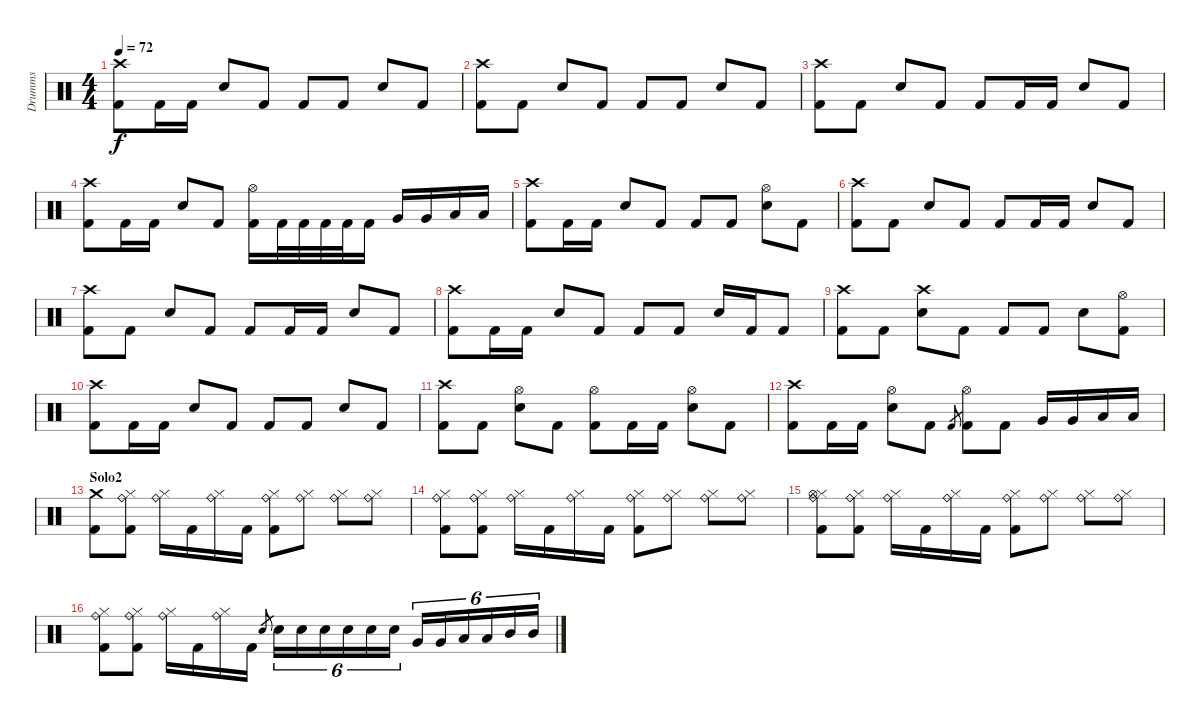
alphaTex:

\track ("Drumms" "Drumms") {instrument percussion}
\staff {score}
\articulation defaults
\ts (4 4)
\tempo 72
\clef neutral
\ks c
("Crash high (hit)" "Kick (hit) 2").8{dy f} "Kick (hit) 2".16 "Kick (hit) 2".16 "Electric Snare (hit)".8 "Kick (hit) 2".8 "Kick (hit) 2".8 "Kick (hit) 2".8 "Electric Snare (hit)".8 "Kick (hit) 2".8 |
("Crash high (hit)" "Kick (hit) 2").8 "Kick (hit) 2".8 "Electric Snare (hit)".8 "Kick (hit) 2".8 "Kick (hit) 2".8 "Kick (hit) 2".8 "Electric Snare (hit)".8 "Kick (hit) 2".8 |
("Crash high (hit)" "Kick (hit) 2").8 "Kick (hit) 2".8 "Electric Snare (hit)".8 "Kick (hit) 2".8 "Kick (hit) 2".8 "Kick (hit) 2".16 "Kick (hit) 2".16 "Electric Snare (hit)".8 "Kick (hit) 2".8 |
("Crash high (hit)" "Kick (hit) 2").8 "Kick (hit) 2".16 "Kick (hit) 2".16 "Electric Snare (hit)".8 "Kick (hit) 2".8 ("Hi-Hat (open)" "Kick (hit) 2").16 "Kick (hit) 2".32 "Kick (hit) 2".32 "Kick (hit) 2".32 "Kick (hit) 2".32 "Kick (hit) 2".16 "Very Low Tom (hit)".16 "Very Low Tom (hit)".16 "Low Tom (hit)".16 "Low Tom (hit)".16 |
("Crash high (hit)" "Kick (hit) 2").8 "Kick (hit) 2".16 "Kick (hit) 2".16 "Electric Snare (hit)".8 "Kick (hit) 2".8 "Kick (hit) 2".8 "Kick (hit) 2".8 ("Hi-Hat (open)" "Electric Snare (hit)").8 "Kick (hit) 2".8 |
("Crash high (hit)" "Kick (hit) 2").8 "Kick (hit) 2".8 "Electric Snare (hit)".8 "Kick (hit) 2".8 "Kick (hit) 2".8 "Kick (hit) 2".16 "Kick (hit) 2".16 "Electric Snare (hit)".8 "Kick (hit) 2".8 |
("Crash high (hit)" "Kick (hit) 2").8 "Kick (hit) 2".8 "Electric Snare (hit)".8 "Kick (hit) 2".8 "Kick (hit) 2".8 "Kick (hit) 2".16 "Kick (hit) 2".16 "Electric Snare (hit)".8 "Kick (hit) 2".8 |
("Crash high (hit)" "Kick (hit) 2").8 "Kick (hit) 2".16 "Kick (hit) 2".16 "Electric Snare (hit)".8 "Kick (hit) 2".8 "Kick (hit) 2".8 "Kick (hit) 2".8 "Electric Snare (hit)".16 "Kick (hit) 2".16 "Kick (hit) 2".8 |
("Crash high (hit)" "Kick (hit) 2").8 "Kick (hit) 2".8 ("Crash high (hit)" "Electric Snare (hit)").8 "Kick (hit) 2".8 "Kick (hit) 2".8 "Kick (hit) 2".8 "Electric Snare (hit)".8 ("Hi-Hat (open)" "Kick (hit) 2").8 |
("Crash high (hit)" "Kick (hit) 2").8 "Kick (hit) 2".16 "Kick (hit) 2".16 "Electric Snare (hit)".8 "Kick (hit) 2".8 "Kick (hit) 2".8 "Kick (hit) 2".8 "Electric Snare (hit)".8 "Kick (hit) 2".8 |
("Crash high (hit)" "Kick (hit) 2").8 "Kick (hit) 2".8 ("Hi-Hat (open)" "Electric Snare (hit)").8 "Kick (hit) 2".8 ("Hi-Hat (open)" "Kick (hit) 2").8 "Kick (hit) 2".16 "Kick (hit) 2".16 ("Hi-Hat (open)" "Electric Snare (hit)").8 "Kick (hit) 2".8 |
("Crash high (hit)" "Kick (hit) 2").8 "Kick (hit) 2".16 "Kick (hit) 2".16 ("Hi-Hat (open)" "Electric Snare (hit)").8 "Kick (hit) 2".8 "Kick (hit) 2".8{gr} ("Hi-Hat (open)" "Kick (hit) 2").8 "Kick (hit) 2".8 "Very Low Tom (hit)".16 "Very Low Tom (hit)".16 "Low Tom (hit)".16 "Low Tom (hit)".16 |
\section ("" "Solo2")
("Crash medium (hit)" "Kick (hit) 2").8 ("Hi-Hat (closed)" "Ride (bell)" "Kick (hit) 2").8 ("Hi-Hat (closed)" "Ride (bell)").16 "Kick (hit) 2".16 ("Hi-Hat (closed)" "Ride (bell)").16 "Kick (hit) 2".16 ("Hi-Hat (closed)" "Ride (bell)" "Kick (hit) 2").8 ("Hi-Hat (closed)" "Ride (bell)").8 ("Hi-Hat (closed)" "Ride (bell)").8 ("Hi-Hat (closed)" "Ride (bell)").8 |
("Hi-Hat (closed)" "Ride (bell)" "Kick (hit) 2").8 ("Hi-Hat (closed)" "Ride (bell)" "Kick (hit) 2").8 ("Hi-Hat (closed)" "Ride (bell)").16 "Kick (hit) 2".16 ("Hi-Hat (closed)" "Ride (bell)").16 "Kick (hit) 2".16 ("Hi-Hat (closed)" "Ride (bell)" "Kick (hit) 2").8 ("Hi-Hat (closed)" "Ride (bell)").8 ("Hi-Hat (closed)" "Ride (bell)").8 ("Hi-Hat (closed)" "Ride (bell)").8 |
("Hi-Hat (closed)" "Ride (bell)" "Hi-Hat (open)" "Kick (hit) 2").8 ("Hi-Hat (closed)" "Ride (bell)" "Kick (hit) 2").8 ("Hi-Hat (closed)" "Ride (bell)").16 "Kick (hit) 2".16 ("Hi-Hat (closed)" "Ride (bell)").16 "Kick (hit) 2".16 ("Hi-Hat (closed)" "Ride (bell)" "Kick (hit) 2").8 ("Hi-Hat (closed)" "Ride (bell)").8 ("Hi-Hat (closed)" "Ride (bell)").8 ("Hi-Hat (closed)" "Ride (bell)").8 |
("Hi-Hat (closed)" "Ride (bell)" "Kick (hit) 2").8 ("Hi-Hat (closed)" "Ride (bell)" "Kick (hit) 2").8 ("Hi-Hat (closed)" "Ride (bell)").16 "Kick (hit) 2".16 ("Hi-Hat (closed)" "Ride (bell)").16 "Kick (hit) 2".16 "Electric Snare (hit)".8{gr} "Electric Snare (hit)".16{tu (6 4)} "Electric Snare (hit)".16{tu (6 4)} "Electric Snare (hit)".16{tu (6 4)} "Electric Snare (hit)".16{tu (6 4)} "Electric Snare (hit)".16{tu (6 4)} "Electric Snare (hit)".16{tu (6 4)} "Very Low Tom (hit)".16{tu (6 4)} "Very Low Tom (hit)".16{tu (6 4)} "Low Tom (hit)".16{tu (6 4)} "Low Tom (hit)".16{tu (6 4)} "Mid Tom (hit)".16{tu (6 4)} "Mid Tom (hit)".16{tu (6 4)}
